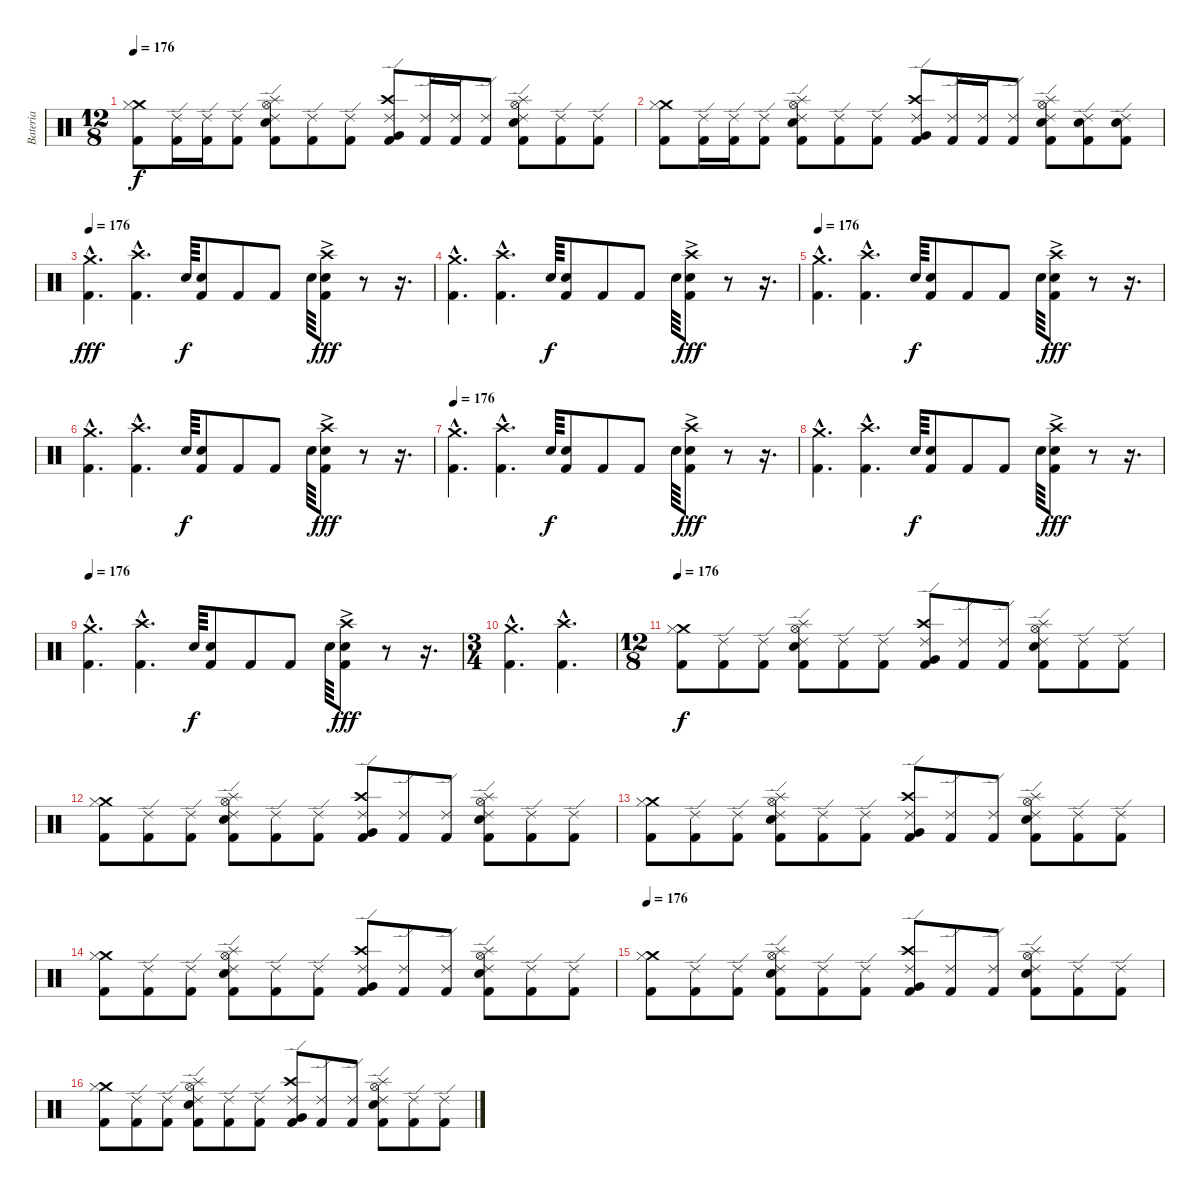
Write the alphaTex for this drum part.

\track ("Bateria" "Bateria") {instrument percussion}
\staff {score}
\articulation defaults
\ts (12 8)
\tempo 176
\clef neutral
\ks c
("Crash medium (hit)" "Hi-Hat (closed)" "Kick (hit) 2").8{dy f} ("Ride (edge) 2" "Kick (hit) 2").16 ("Ride (edge) 2" "Kick (hit) 2").16 ("Ride (edge) 2" "Kick (hit) 2").8 ("Splash (hit)" "Snare (hit) 2" "Hi-Hat (open)" "Ride (edge) 2" "Kick (hit) 2").8 ("Ride (edge) 2" "Kick (hit) 2").8 ("Ride (edge) 2" "Kick (hit) 2").8 ("Crash high (hit)" "Very Low Tom (hit)" "Ride (edge) 2" "Kick (hit) 2").8 ("Ride (edge) 2" "Kick (hit) 2").16 ("Ride (edge) 2" "Kick (hit) 2").16 ("Ride (edge) 2" "Kick (hit) 2").8 ("Splash (hit)" "Snare (hit) 2" "Hi-Hat (open)" "Ride (edge) 2" "Kick (hit) 2").8 ("Ride (edge) 2" "Kick (hit) 2").8 ("Ride (edge) 2" "Kick (hit) 2").8 |
("Crash medium (hit)" "Hi-Hat (closed)" "Kick (hit) 2").8 ("Ride (edge) 2" "Kick (hit) 2").16 ("Ride (edge) 2" "Kick (hit) 2").16 ("Ride (edge) 2" "Kick (hit) 2").8 ("Splash (hit)" "Snare (hit) 2" "Hi-Hat (open)" "Ride (edge) 2" "Kick (hit) 2").8 ("Ride (edge) 2" "Kick (hit) 2").8 ("Ride (edge) 2" "Kick (hit) 2").8 ("Crash high (hit)" "Very Low Tom (hit)" "Ride (edge) 2" "Kick (hit) 2").8 ("Ride (edge) 2" "Kick (hit) 2").16 ("Ride (edge) 2" "Kick (hit) 2").16 ("Ride (edge) 2" "Kick (hit) 2").8 ("Splash (hit)" "Snare (hit) 2" "Hi-Hat (open)" "Ride (edge) 2" "Kick (hit) 2").8 ("Snare (hit) 2" "Ride (edge) 2" "Kick (hit) 2").8 ("Snare (hit) 2" "Ride (edge) 2" "Kick (hit) 2").8 |
\tempo 176
("Crash medium (hit)"{hac} "Kick (hit) 2"{hac}).4{d dy fff} ("Crash high (hit)"{hac} "Kick (hit) 2"{hac}).4{d} "Snare (hit) 2".64{dy f} ("Snare (hit) 2" "Kick (hit) 2").8 "Kick (hit) 2".8 "Kick (hit) 2".8 "Snare (hit) 2".64 ("Crash high (hit)"{ac} "Snare (hit) 2" "Kick (hit) 2").8{dy fff} r.8 r.16{d} |
("Crash medium (hit)"{hac} "Kick (hit) 2"{hac}).4{d} ("Crash high (hit)"{hac} "Kick (hit) 2"{hac}).4{d} "Snare (hit) 2".64{dy f} ("Snare (hit) 2" "Kick (hit) 2").8 "Kick (hit) 2".8 "Kick (hit) 2".8 "Snare (hit) 2".64 ("Crash high (hit)"{ac} "Snare (hit) 2" "Kick (hit) 2").8{dy fff} r.8 r.16{d} |
\tempo 176
("Crash medium (hit)"{hac} "Kick (hit) 2"{hac}).4{d} ("Crash high (hit)"{hac} "Kick (hit) 2"{hac}).4{d} "Snare (hit) 2".64{dy f} ("Snare (hit) 2" "Kick (hit) 2").8 "Kick (hit) 2".8 "Kick (hit) 2".8 "Snare (hit) 2".64 ("Crash high (hit)"{ac} "Snare (hit) 2" "Kick (hit) 2").8{dy fff} r.8 r.16{d} |
("Crash medium (hit)"{hac} "Kick (hit) 2"{hac}).4{d} ("Crash high (hit)"{hac} "Kick (hit) 2"{hac}).4{d} "Snare (hit) 2".64{dy f} ("Snare (hit) 2" "Kick (hit) 2").8 "Kick (hit) 2".8 "Kick (hit) 2".8 "Snare (hit) 2".64 ("Crash high (hit)"{ac} "Snare (hit) 2" "Kick (hit) 2").8{dy fff} r.8 r.16{d} |
\tempo 176
("Crash medium (hit)"{hac} "Kick (hit) 2"{hac}).4{d} ("Crash high (hit)"{hac} "Kick (hit) 2"{hac}).4{d} "Snare (hit) 2".64{dy f} ("Snare (hit) 2" "Kick (hit) 2").8 "Kick (hit) 2".8 "Kick (hit) 2".8 "Snare (hit) 2".64 ("Crash high (hit)"{ac} "Snare (hit) 2" "Kick (hit) 2").8{dy fff} r.8 r.16{d} |
("Crash medium (hit)"{hac} "Kick (hit) 2"{hac}).4{d} ("Crash high (hit)"{hac} "Kick (hit) 2"{hac}).4{d} "Snare (hit) 2".64{dy f} ("Snare (hit) 2" "Kick (hit) 2").8 "Kick (hit) 2".8 "Kick (hit) 2".8 "Snare (hit) 2".64 ("Crash high (hit)"{ac} "Snare (hit) 2" "Kick (hit) 2").8{dy fff} r.8 r.16{d} |
\tempo 176
("Crash medium (hit)"{hac} "Kick (hit) 2"{hac}).4{d} ("Crash high (hit)"{hac} "Kick (hit) 2"{hac}).4{d} "Snare (hit) 2".64{dy f} ("Snare (hit) 2" "Kick (hit) 2").8 "Kick (hit) 2".8 "Kick (hit) 2".8 "Snare (hit) 2".64 ("Crash high (hit)"{ac} "Snare (hit) 2" "Kick (hit) 2").8{dy fff} r.8 r.16{d} |
\ts (3 4)
("Crash medium (hit)"{hac} "Kick (hit) 2"{hac}).4{d} ("Crash high (hit)"{hac} "Kick (hit) 2"{hac}).4{d} |
\ts (12 8)
\tempo 176
("Crash medium (hit)" "Hi-Hat (closed)" "Kick (hit) 2").8{dy f} ("Ride (edge) 2" "Kick (hit) 2").8 ("Ride (edge) 2" "Kick (hit) 2").8 ("Splash (hit)" "Snare (hit) 2" "Hi-Hat (open)" "Ride (edge) 2" "Kick (hit) 2").8 ("Ride (edge) 2" "Kick (hit) 2").8 ("Ride (edge) 2" "Kick (hit) 2").8 ("Crash high (hit)" "Very Low Tom (hit)" "Ride (edge) 2" "Kick (hit) 2").8 ("Ride (edge) 2" "Kick (hit) 2").8 ("Ride (edge) 2" "Kick (hit) 2").8 ("Splash (hit)" "Snare (hit) 2" "Hi-Hat (open)" "Ride (edge) 2" "Kick (hit) 2").8 ("Ride (edge) 2" "Kick (hit) 2").8 ("Ride (edge) 2" "Kick (hit) 2").8 |
("Crash medium (hit)" "Hi-Hat (closed)" "Kick (hit) 2").8 ("Ride (edge) 2" "Kick (hit) 2").8 ("Ride (edge) 2" "Kick (hit) 2").8 ("Splash (hit)" "Snare (hit) 2" "Hi-Hat (open)" "Ride (edge) 2" "Kick (hit) 2").8 ("Ride (edge) 2" "Kick (hit) 2").8 ("Ride (edge) 2" "Kick (hit) 2").8 ("Crash high (hit)" "Very Low Tom (hit)" "Ride (edge) 2" "Kick (hit) 2").8 ("Ride (edge) 2" "Kick (hit) 2").8 ("Ride (edge) 2" "Kick (hit) 2").8 ("Splash (hit)" "Snare (hit) 2" "Hi-Hat (open)" "Ride (edge) 2" "Kick (hit) 2").8 ("Ride (edge) 2" "Kick (hit) 2").8 ("Ride (edge) 2" "Kick (hit) 2").8 |
("Crash medium (hit)" "Hi-Hat (closed)" "Kick (hit) 2").8 ("Ride (edge) 2" "Kick (hit) 2").8 ("Ride (edge) 2" "Kick (hit) 2").8 ("Splash (hit)" "Snare (hit) 2" "Hi-Hat (open)" "Ride (edge) 2" "Kick (hit) 2").8 ("Ride (edge) 2" "Kick (hit) 2").8 ("Ride (edge) 2" "Kick (hit) 2").8 ("Crash high (hit)" "Very Low Tom (hit)" "Ride (edge) 2" "Kick (hit) 2").8 ("Ride (edge) 2" "Kick (hit) 2").8 ("Ride (edge) 2" "Kick (hit) 2").8 ("Splash (hit)" "Snare (hit) 2" "Hi-Hat (open)" "Ride (edge) 2" "Kick (hit) 2").8 ("Ride (edge) 2" "Kick (hit) 2").8 ("Ride (edge) 2" "Kick (hit) 2").8 |
("Crash medium (hit)" "Hi-Hat (closed)" "Kick (hit) 2").8 ("Ride (edge) 2" "Kick (hit) 2").8 ("Ride (edge) 2" "Kick (hit) 2").8 ("Splash (hit)" "Snare (hit) 2" "Hi-Hat (open)" "Ride (edge) 2" "Kick (hit) 2").8 ("Ride (edge) 2" "Kick (hit) 2").8 ("Ride (edge) 2" "Kick (hit) 2").8 ("Crash high (hit)" "Very Low Tom (hit)" "Ride (edge) 2" "Kick (hit) 2").8 ("Ride (edge) 2" "Kick (hit) 2").8 ("Ride (edge) 2" "Kick (hit) 2").8 ("Splash (hit)" "Snare (hit) 2" "Hi-Hat (open)" "Ride (edge) 2" "Kick (hit) 2").8 ("Ride (edge) 2" "Kick (hit) 2").8 ("Ride (edge) 2" "Kick (hit) 2").8 |
\tempo 176
("Crash medium (hit)" "Hi-Hat (closed)" "Kick (hit) 2").8 ("Ride (edge) 2" "Kick (hit) 2").8 ("Ride (edge) 2" "Kick (hit) 2").8 ("Splash (hit)" "Snare (hit) 2" "Hi-Hat (open)" "Ride (edge) 2" "Kick (hit) 2").8 ("Ride (edge) 2" "Kick (hit) 2").8 ("Ride (edge) 2" "Kick (hit) 2").8 ("Crash high (hit)" "Very Low Tom (hit)" "Ride (edge) 2" "Kick (hit) 2").8 ("Ride (edge) 2" "Kick (hit) 2").8 ("Ride (edge) 2" "Kick (hit) 2").8 ("Splash (hit)" "Snare (hit) 2" "Hi-Hat (open)" "Ride (edge) 2" "Kick (hit) 2").8 ("Ride (edge) 2" "Kick (hit) 2").8 ("Ride (edge) 2" "Kick (hit) 2").8 |
("Crash medium (hit)" "Hi-Hat (closed)" "Kick (hit) 2").8 ("Ride (edge) 2" "Kick (hit) 2").8 ("Ride (edge) 2" "Kick (hit) 2").8 ("Splash (hit)" "Snare (hit) 2" "Hi-Hat (open)" "Ride (edge) 2" "Kick (hit) 2").8 ("Ride (edge) 2" "Kick (hit) 2").8 ("Ride (edge) 2" "Kick (hit) 2").8 ("Crash high (hit)" "Very Low Tom (hit)" "Ride (edge) 2" "Kick (hit) 2").8 ("Ride (edge) 2" "Kick (hit) 2").8 ("Ride (edge) 2" "Kick (hit) 2").8 ("Splash (hit)" "Snare (hit) 2" "Hi-Hat (open)" "Ride (edge) 2" "Kick (hit) 2").8 ("Ride (edge) 2" "Kick (hit) 2").8 ("Ride (edge) 2" "Kick (hit) 2").8
